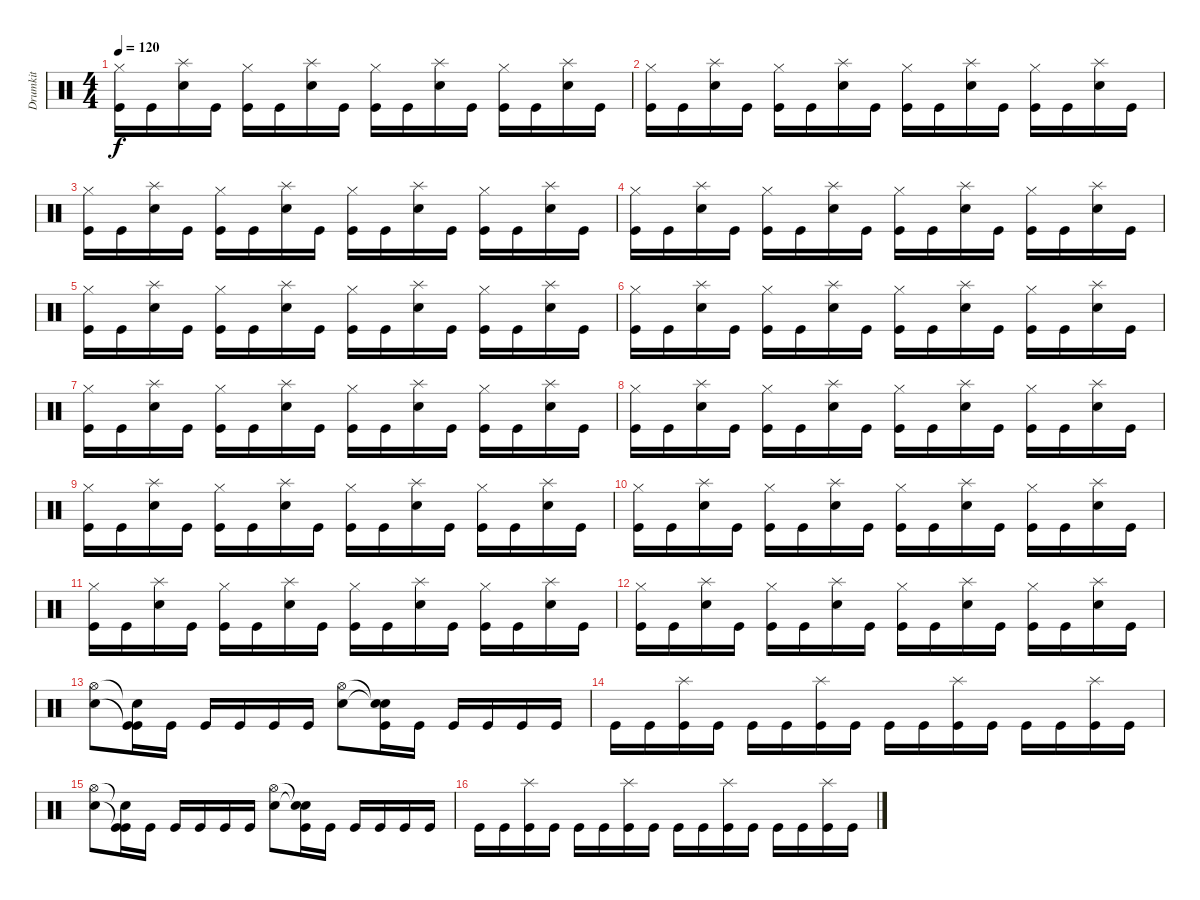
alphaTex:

\track ("Drumkit" "Drumkit") {instrument percussion}
\staff {score}
\articulation defaults
\ts (4 4)
\tempo 120
\clef neutral
\ks c
("Hi-Hat (closed)" "Kick (hit)").16{dy f} "Kick (hit)".16 ("Splash (hit)" "Electric Snare (hit)").16 "Kick (hit)".16 ("Hi-Hat (closed)" "Kick (hit)").16 "Kick (hit)".16 ("Splash (hit)" "Electric Snare (hit)").16 "Kick (hit)".16 ("Hi-Hat (closed)" "Kick (hit)").16 "Kick (hit)".16 ("Splash (hit)" "Electric Snare (hit)").16 "Kick (hit)".16 ("Hi-Hat (closed)" "Kick (hit)").16 "Kick (hit)".16 ("Splash (hit)" "Electric Snare (hit)").16 "Kick (hit)".16 |
("Hi-Hat (closed)" "Kick (hit)").16 "Kick (hit)".16 ("Splash (hit)" "Electric Snare (hit)").16 "Kick (hit)".16 ("Hi-Hat (closed)" "Kick (hit)").16 "Kick (hit)".16 ("Splash (hit)" "Electric Snare (hit)").16 "Kick (hit)".16 ("Hi-Hat (closed)" "Kick (hit)").16 "Kick (hit)".16 ("Splash (hit)" "Electric Snare (hit)").16 "Kick (hit)".16 ("Hi-Hat (closed)" "Kick (hit)").16 "Kick (hit)".16 ("Splash (hit)" "Electric Snare (hit)").16 "Kick (hit)".16 |
("Hi-Hat (closed)" "Kick (hit)").16 "Kick (hit)".16 ("Splash (hit)" "Electric Snare (hit)").16 "Kick (hit)".16 ("Hi-Hat (closed)" "Kick (hit)").16 "Kick (hit)".16 ("Splash (hit)" "Electric Snare (hit)").16 "Kick (hit)".16 ("Hi-Hat (closed)" "Kick (hit)").16 "Kick (hit)".16 ("Splash (hit)" "Electric Snare (hit)").16 "Kick (hit)".16 ("Hi-Hat (closed)" "Kick (hit)").16 "Kick (hit)".16 ("Splash (hit)" "Electric Snare (hit)").16 "Kick (hit)".16 |
("Hi-Hat (closed)" "Kick (hit)").16 "Kick (hit)".16 ("Splash (hit)" "Electric Snare (hit)").16 "Kick (hit)".16 ("Hi-Hat (closed)" "Kick (hit)").16 "Kick (hit)".16 ("Splash (hit)" "Electric Snare (hit)").16 "Kick (hit)".16 ("Hi-Hat (closed)" "Kick (hit)").16 "Kick (hit)".16 ("Splash (hit)" "Electric Snare (hit)").16 "Kick (hit)".16 ("Hi-Hat (closed)" "Kick (hit)").16 "Kick (hit)".16 ("Splash (hit)" "Electric Snare (hit)").16 "Kick (hit)".16 |
("Hi-Hat (closed)" "Kick (hit)").16 "Kick (hit)".16 ("Splash (hit)" "Electric Snare (hit)").16 "Kick (hit)".16 ("Hi-Hat (closed)" "Kick (hit)").16 "Kick (hit)".16 ("Splash (hit)" "Electric Snare (hit)").16 "Kick (hit)".16 ("Hi-Hat (closed)" "Kick (hit)").16 "Kick (hit)".16 ("Splash (hit)" "Electric Snare (hit)").16 "Kick (hit)".16 ("Hi-Hat (closed)" "Kick (hit)").16 "Kick (hit)".16 ("Splash (hit)" "Electric Snare (hit)").16 "Kick (hit)".16 |
("Hi-Hat (closed)" "Kick (hit)").16 "Kick (hit)".16 ("Splash (hit)" "Electric Snare (hit)").16 "Kick (hit)".16 ("Hi-Hat (closed)" "Kick (hit)").16 "Kick (hit)".16 ("Splash (hit)" "Electric Snare (hit)").16 "Kick (hit)".16 ("Hi-Hat (closed)" "Kick (hit)").16 "Kick (hit)".16 ("Splash (hit)" "Electric Snare (hit)").16 "Kick (hit)".16 ("Hi-Hat (closed)" "Kick (hit)").16 "Kick (hit)".16 ("Splash (hit)" "Electric Snare (hit)").16 "Kick (hit)".16 |
("Hi-Hat (closed)" "Kick (hit)").16 "Kick (hit)".16 ("Splash (hit)" "Electric Snare (hit)").16 "Kick (hit)".16 ("Hi-Hat (closed)" "Kick (hit)").16 "Kick (hit)".16 ("Splash (hit)" "Electric Snare (hit)").16 "Kick (hit)".16 ("Hi-Hat (closed)" "Kick (hit)").16 "Kick (hit)".16 ("Splash (hit)" "Electric Snare (hit)").16 "Kick (hit)".16 ("Hi-Hat (closed)" "Kick (hit)").16 "Kick (hit)".16 ("Splash (hit)" "Electric Snare (hit)").16 "Kick (hit)".16 |
("Hi-Hat (closed)" "Kick (hit)").16 "Kick (hit)".16 ("Splash (hit)" "Electric Snare (hit)").16 "Kick (hit)".16 ("Hi-Hat (closed)" "Kick (hit)").16 "Kick (hit)".16 ("Splash (hit)" "Electric Snare (hit)").16 "Kick (hit)".16 ("Hi-Hat (closed)" "Kick (hit)").16 "Kick (hit)".16 ("Splash (hit)" "Electric Snare (hit)").16 "Kick (hit)".16 ("Hi-Hat (closed)" "Kick (hit)").16 "Kick (hit)".16 ("Splash (hit)" "Electric Snare (hit)").16 "Kick (hit)".16 |
("Hi-Hat (closed)" "Kick (hit)").16 "Kick (hit)".16 ("Splash (hit)" "Electric Snare (hit)").16 "Kick (hit)".16 ("Hi-Hat (closed)" "Kick (hit)").16 "Kick (hit)".16 ("Splash (hit)" "Electric Snare (hit)").16 "Kick (hit)".16 ("Hi-Hat (closed)" "Kick (hit)").16 "Kick (hit)".16 ("Splash (hit)" "Electric Snare (hit)").16 "Kick (hit)".16 ("Hi-Hat (closed)" "Kick (hit)").16 "Kick (hit)".16 ("Splash (hit)" "Electric Snare (hit)").16 "Kick (hit)".16 |
("Hi-Hat (closed)" "Kick (hit)").16 "Kick (hit)".16 ("Splash (hit)" "Electric Snare (hit)").16 "Kick (hit)".16 ("Hi-Hat (closed)" "Kick (hit)").16 "Kick (hit)".16 ("Splash (hit)" "Electric Snare (hit)").16 "Kick (hit)".16 ("Hi-Hat (closed)" "Kick (hit)").16 "Kick (hit)".16 ("Splash (hit)" "Electric Snare (hit)").16 "Kick (hit)".16 ("Hi-Hat (closed)" "Kick (hit)").16 "Kick (hit)".16 ("Splash (hit)" "Electric Snare (hit)").16 "Kick (hit)".16 |
("Hi-Hat (closed)" "Kick (hit)").16 "Kick (hit)".16 ("Splash (hit)" "Electric Snare (hit)").16 "Kick (hit)".16 ("Hi-Hat (closed)" "Kick (hit)").16 "Kick (hit)".16 ("Splash (hit)" "Electric Snare (hit)").16 "Kick (hit)".16 ("Hi-Hat (closed)" "Kick (hit)").16 "Kick (hit)".16 ("Splash (hit)" "Electric Snare (hit)").16 "Kick (hit)".16 ("Hi-Hat (closed)" "Kick (hit)").16 "Kick (hit)".16 ("Splash (hit)" "Electric Snare (hit)").16 "Kick (hit)".16 |
("Hi-Hat (closed)" "Kick (hit)").16 "Kick (hit)".16 ("Splash (hit)" "Electric Snare (hit)").16 "Kick (hit)".16 ("Hi-Hat (closed)" "Kick (hit)").16 "Kick (hit)".16 ("Splash (hit)" "Electric Snare (hit)").16 "Kick (hit)".16 ("Hi-Hat (closed)" "Kick (hit)").16 "Kick (hit)".16 ("Splash (hit)" "Electric Snare (hit)").16 "Kick (hit)".16 ("Hi-Hat (closed)" "Kick (hit)").16 "Kick (hit)".16 ("Splash (hit)" "Electric Snare (hit)").16 "Kick (hit)".16 |
("Hi-Hat (open)" "Electric Snare (hit)").8 ("Snare (hit)"{t} "Kick (hit)"{t} "Kick (hit)").16 "Kick (hit)".16 "Kick (hit)".16 "Kick (hit)".16 "Kick (hit)".16 "Kick (hit)".16 ("Hi-Hat (open)" "Electric Snare (hit)").8 ("Snare (hit)"{t} "Snare (hit)"{t} "Kick (hit)").16 "Kick (hit)".16 "Kick (hit)".16 "Kick (hit)".16 "Kick (hit)".16 "Kick (hit)".16 |
"Kick (hit)".16 "Kick (hit)".16 ("Splash (hit)" "Kick (hit)").16 "Kick (hit)".16 "Kick (hit)".16 "Kick (hit)".16 ("Splash (hit)" "Kick (hit)").16 "Kick (hit)".16 "Kick (hit)".16 "Kick (hit)".16 ("Splash (hit)" "Kick (hit)").16 "Kick (hit)".16 "Kick (hit)".16 "Kick (hit)".16 ("Splash (hit)" "Kick (hit)").16 "Kick (hit)".16 |
("Hi-Hat (open)" "Electric Snare (hit)").8 ("Snare (hit)"{t} "Kick (hit)"{t} "Kick (hit)").16 "Kick (hit)".16 "Kick (hit)".16 "Kick (hit)".16 "Kick (hit)".16 "Kick (hit)".16 ("Hi-Hat (open)" "Electric Snare (hit)").8 ("Snare (hit)"{t} "Snare (hit)"{t} "Kick (hit)").16 "Kick (hit)".16 "Kick (hit)".16 "Kick (hit)".16 "Kick (hit)".16 "Kick (hit)".16 |
"Kick (hit)".16 "Kick (hit)".16 ("Splash (hit)" "Kick (hit)").16 "Kick (hit)".16 "Kick (hit)".16 "Kick (hit)".16 ("Splash (hit)" "Kick (hit)").16 "Kick (hit)".16 "Kick (hit)".16 "Kick (hit)".16 ("Splash (hit)" "Kick (hit)").16 "Kick (hit)".16 "Kick (hit)".16 "Kick (hit)".16 ("Splash (hit)" "Kick (hit)").16 "Kick (hit)".16
